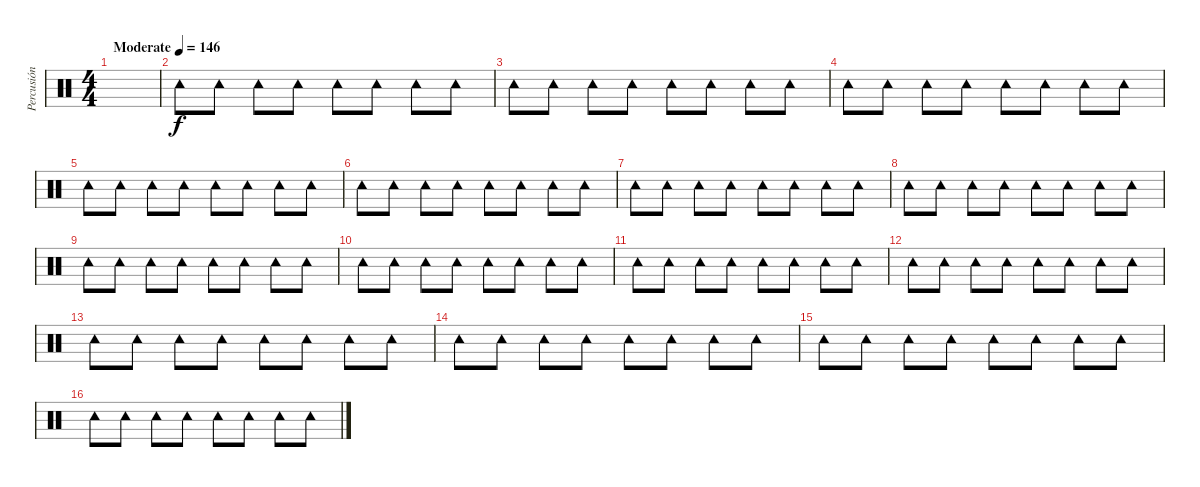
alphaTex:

\track ("Percusión" "Percusión") {instrument percussion}
\staff {score}
\articulation defaults
\ts (4 4)
\tempo (146 "Moderate")
\clef neutral
\ks c
|
"Tambourine (hit)".8 "Tambourine (hit)".8 "Tambourine (hit)".8 "Tambourine (hit)".8 "Tambourine (hit)".8 "Tambourine (hit)".8 "Tambourine (hit)".8 "Tambourine (hit)".8 |
"Tambourine (hit)".8 "Tambourine (hit)".8 "Tambourine (hit)".8 "Tambourine (hit)".8 "Tambourine (hit)".8 "Tambourine (hit)".8 "Tambourine (hit)".8 "Tambourine (hit)".8 |
"Tambourine (hit)".8 "Tambourine (hit)".8 "Tambourine (hit)".8 "Tambourine (hit)".8 "Tambourine (hit)".8 "Tambourine (hit)".8 "Tambourine (hit)".8 "Tambourine (hit)".8 |
"Tambourine (hit)".8 "Tambourine (hit)".8 "Tambourine (hit)".8 "Tambourine (hit)".8 "Tambourine (hit)".8 "Tambourine (hit)".8 "Tambourine (hit)".8 "Tambourine (hit)".8 |
"Tambourine (hit)".8 "Tambourine (hit)".8 "Tambourine (hit)".8 "Tambourine (hit)".8 "Tambourine (hit)".8 "Tambourine (hit)".8 "Tambourine (hit)".8 "Tambourine (hit)".8 |
"Tambourine (hit)".8 "Tambourine (hit)".8 "Tambourine (hit)".8 "Tambourine (hit)".8 "Tambourine (hit)".8 "Tambourine (hit)".8 "Tambourine (hit)".8 "Tambourine (hit)".8 |
"Tambourine (hit)".8 "Tambourine (hit)".8 "Tambourine (hit)".8 "Tambourine (hit)".8 "Tambourine (hit)".8 "Tambourine (hit)".8 "Tambourine (hit)".8 "Tambourine (hit)".8 |
"Tambourine (hit)".8 "Tambourine (hit)".8 "Tambourine (hit)".8 "Tambourine (hit)".8 "Tambourine (hit)".8 "Tambourine (hit)".8 "Tambourine (hit)".8 "Tambourine (hit)".8 |
"Tambourine (hit)".8 "Tambourine (hit)".8 "Tambourine (hit)".8 "Tambourine (hit)".8 "Tambourine (hit)".8 "Tambourine (hit)".8 "Tambourine (hit)".8 "Tambourine (hit)".8 |
"Tambourine (hit)".8 "Tambourine (hit)".8 "Tambourine (hit)".8 "Tambourine (hit)".8 "Tambourine (hit)".8 "Tambourine (hit)".8 "Tambourine (hit)".8 "Tambourine (hit)".8 |
"Tambourine (hit)".8 "Tambourine (hit)".8 "Tambourine (hit)".8 "Tambourine (hit)".8 "Tambourine (hit)".8 "Tambourine (hit)".8 "Tambourine (hit)".8 "Tambourine (hit)".8 |
"Tambourine (hit)".8 "Tambourine (hit)".8 "Tambourine (hit)".8 "Tambourine (hit)".8 "Tambourine (hit)".8 "Tambourine (hit)".8 "Tambourine (hit)".8 "Tambourine (hit)".8 |
"Tambourine (hit)".8 "Tambourine (hit)".8 "Tambourine (hit)".8 "Tambourine (hit)".8 "Tambourine (hit)".8 "Tambourine (hit)".8 "Tambourine (hit)".8 "Tambourine (hit)".8 |
"Tambourine (hit)".8 "Tambourine (hit)".8 "Tambourine (hit)".8 "Tambourine (hit)".8 "Tambourine (hit)".8 "Tambourine (hit)".8 "Tambourine (hit)".8 "Tambourine (hit)".8 |
"Tambourine (hit)".8 "Tambourine (hit)".8 "Tambourine (hit)".8 "Tambourine (hit)".8 "Tambourine (hit)".8 "Tambourine (hit)".8 "Tambourine (hit)".8 "Tambourine (hit)".8
